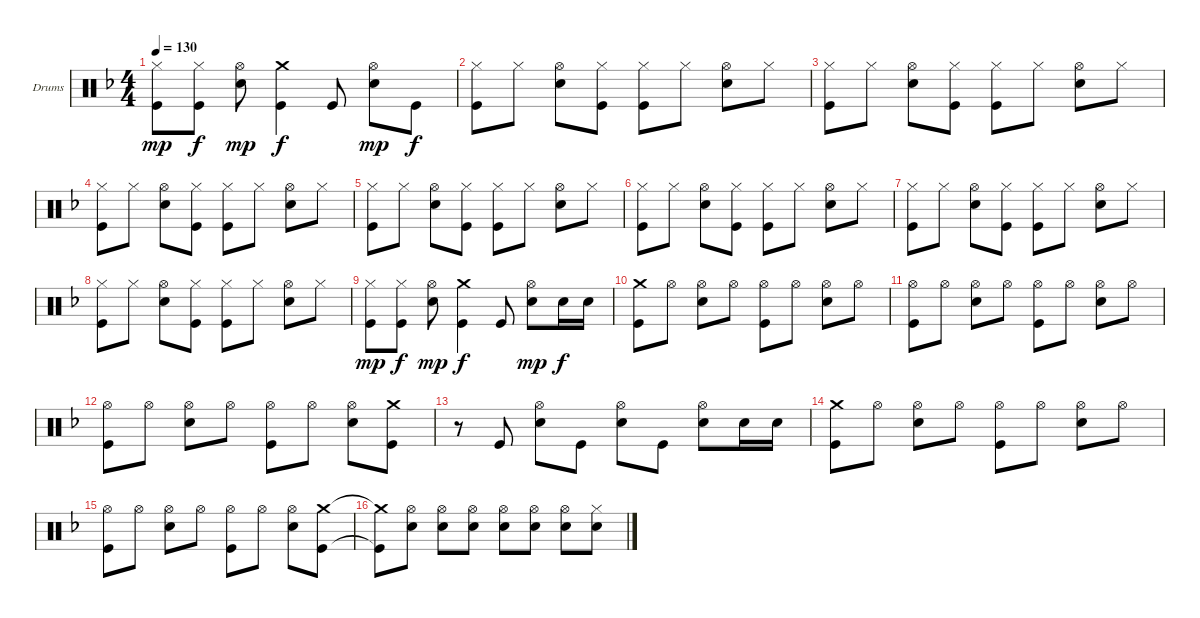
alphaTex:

\bracketExtendMode groupsimilarinstruments
\firstSystemTrackNameOrientation horizontal
\otherSystemsTrackNameOrientation horizontal
\track ("Александр Манякин" "Drums") {instrument percussion}
\staff {score}
\articulation defaults
\ts (4 4)
\tempo 130
\clef neutral
\ks f
("Hi-Hat (closed)" "Kick (hit)").8{dy mp} ("Hi-Hat (closed)" "Kick (hit)").8{dy f} ("Hi-Hat (open)" "Snare (hit) 2").8{dy mp} ("Crash medium (hit)" "Kick (hit)").4{dy f} "Kick (hit)".8 ("Hi-Hat (open)" "Snare (hit) 2").8{dy mp} "Kick (hit)".8{dy f} |
("Hi-Hat (closed)" "Kick (hit)").8 "Hi-Hat (closed)".8 ("Hi-Hat (open)" "Snare (hit) 2").8 ("Hi-Hat (closed)" "Kick (hit)").8 ("Hi-Hat (closed)" "Kick (hit)").8 "Hi-Hat (closed)".8 ("Hi-Hat (open)" "Snare (hit) 2").8 "Hi-Hat (closed)".8 |
("Hi-Hat (closed)" "Kick (hit)").8 "Hi-Hat (closed)".8 ("Hi-Hat (open)" "Snare (hit) 2").8 ("Hi-Hat (closed)" "Kick (hit)").8 ("Hi-Hat (closed)" "Kick (hit)").8 "Hi-Hat (closed)".8 ("Hi-Hat (open)" "Snare (hit) 2").8 "Hi-Hat (closed)".8 |
("Hi-Hat (closed)" "Kick (hit)").8 "Hi-Hat (closed)".8 ("Hi-Hat (open)" "Snare (hit) 2").8 ("Hi-Hat (closed)" "Kick (hit)").8 ("Hi-Hat (closed)" "Kick (hit)").8 "Hi-Hat (closed)".8 ("Hi-Hat (open)" "Snare (hit) 2").8 "Hi-Hat (closed)".8 |
("Hi-Hat (closed)" "Kick (hit)").8 "Hi-Hat (closed)".8 ("Hi-Hat (open)" "Snare (hit) 2").8 ("Hi-Hat (closed)" "Kick (hit)").8 ("Hi-Hat (closed)" "Kick (hit)").8 "Hi-Hat (closed)".8 ("Hi-Hat (open)" "Snare (hit) 2").8 "Hi-Hat (closed)".8 |
("Hi-Hat (closed)" "Kick (hit)").8 "Hi-Hat (closed)".8 ("Hi-Hat (open)" "Snare (hit) 2").8 ("Hi-Hat (closed)" "Kick (hit)").8 ("Hi-Hat (closed)" "Kick (hit)").8 "Hi-Hat (closed)".8 ("Hi-Hat (open)" "Snare (hit) 2").8 "Hi-Hat (closed)".8 |
("Hi-Hat (closed)" "Kick (hit)").8 "Hi-Hat (closed)".8 ("Hi-Hat (open)" "Snare (hit) 2").8 ("Hi-Hat (closed)" "Kick (hit)").8 ("Hi-Hat (closed)" "Kick (hit)").8 "Hi-Hat (closed)".8 ("Hi-Hat (open)" "Snare (hit) 2").8 "Hi-Hat (closed)".8 |
("Hi-Hat (closed)" "Kick (hit)").8 "Hi-Hat (closed)".8 ("Hi-Hat (open)" "Snare (hit) 2").8 ("Hi-Hat (closed)" "Kick (hit)").8 ("Hi-Hat (closed)" "Kick (hit)").8 "Hi-Hat (closed)".8 ("Hi-Hat (open)" "Snare (hit) 2").8 "Hi-Hat (closed)".8 |
("Hi-Hat (closed)" "Kick (hit)").8{dy mp} ("Hi-Hat (closed)" "Kick (hit)").8{dy f} ("Hi-Hat (open)" "Snare (hit) 2").8{dy mp} ("Crash medium (hit)" "Kick (hit)").4{dy f} "Kick (hit)".8 ("Hi-Hat (open)" "Snare (hit) 2").8{dy mp} "Snare (hit) 2".16{dy f} "Snare (hit) 2".16 |
("Crash medium (hit)" "Kick (hit)").8 "Hi-Hat (open)".8 ("Hi-Hat (open)" "Snare (hit) 2").8 "Hi-Hat (open)".8 ("Hi-Hat (open)" "Kick (hit)").8 "Hi-Hat (open)".8 ("Hi-Hat (open)" "Snare (hit) 2").8 "Hi-Hat (open)".8 |
("Hi-Hat (open)" "Kick (hit)").8 "Hi-Hat (open)".8 ("Hi-Hat (open)" "Snare (hit) 2").8 "Hi-Hat (open)".8 ("Hi-Hat (open)" "Kick (hit)").8 "Hi-Hat (open)".8 ("Hi-Hat (open)" "Snare (hit) 2").8 "Hi-Hat (open)".8 |
("Hi-Hat (open)" "Kick (hit)").8 "Hi-Hat (open)".8 ("Hi-Hat (open)" "Snare (hit) 2").8 "Hi-Hat (open)".8 ("Hi-Hat (open)" "Kick (hit)").8 "Hi-Hat (open)".8 ("Hi-Hat (open)" "Snare (hit) 2").8 ("Crash medium (hit)" "Kick (hit)").8 |
r.8 "Kick (hit)".8 ("Hi-Hat (open)" "Snare (hit) 2").8 "Kick (hit)".8 ("Hi-Hat (open)" "Snare (hit) 2").8 "Kick (hit)".8 ("Hi-Hat (open)" "Snare (hit) 2").8 "Snare (hit) 2".16 "Snare (hit) 2".16 |
("Crash medium (hit)" "Kick (hit)").8 "Hi-Hat (open)".8 ("Hi-Hat (open)" "Snare (hit) 2").8 "Hi-Hat (open)".8 ("Hi-Hat (open)" "Kick (hit)").8 "Hi-Hat (open)".8 ("Hi-Hat (open)" "Snare (hit) 2").8 "Hi-Hat (open)".8 |
("Hi-Hat (open)" "Kick (hit)").8 "Hi-Hat (open)".8 ("Hi-Hat (open)" "Snare (hit) 2").8 "Hi-Hat (open)".8 ("Hi-Hat (open)" "Kick (hit)").8 "Hi-Hat (open)".8 ("Hi-Hat (open)" "Snare (hit) 2").8 ("Crash medium (hit)" "Kick (hit)").8 |
("Crash medium (hit)"{t} "Kick (hit)"{t}).8 ("Hi-Hat (open)" "Snare (hit) 2").8 ("Hi-Hat (open)" "Snare (hit) 2").8 ("Hi-Hat (open)" "Snare (hit) 2").8 ("Hi-Hat (open)" "Snare (hit) 2").8 ("Hi-Hat (open)" "Snare (hit) 2").8 ("Hi-Hat (open)" "Snare (hit) 2").8 ("Hi-Hat (closed)" "Snare (hit) 2").8
